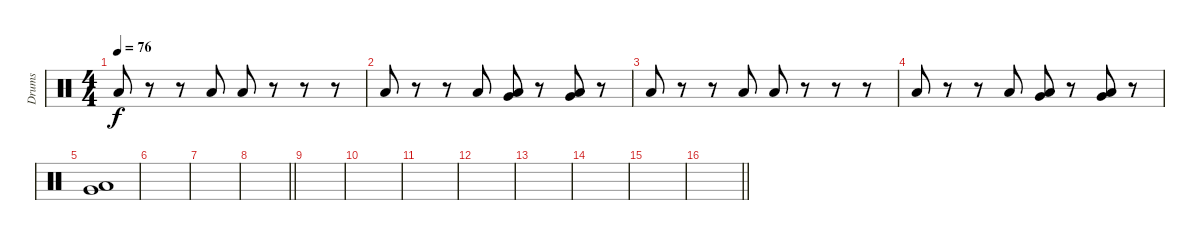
\track ("Drums" "Drums") {instrument percussion}
\staff {score}
\articulation defaults
\ts (4 4)
\tempo 76
\clef neutral
\ks c "Low Floor Tom (hit)".8{dy f}
r.8 r.8 "Low Floor Tom (hit)".8 "Low Floor Tom (hit)".8 r.8 r.8 r.8 |
"Low Floor Tom (hit)".8 r.8 r.8 "Low Floor Tom (hit)".8 ("Low Floor Tom (hit)" "Very Low Tom (hit)").8 r.8 ("Low Floor Tom (hit)" "Very Low Tom (hit)").8 r.8 |
"Low Floor Tom (hit)".8 r.8 r.8 "Low Floor Tom (hit)".8 "Low Floor Tom (hit)".8 r.8 r.8 r.8 |
"Low Floor Tom (hit)".8 r.8 r.8 "Low Floor Tom (hit)".8 ("Low Floor Tom (hit)" "Very Low Tom (hit)").8 r.8 ("Low Floor Tom (hit)" "Very Low Tom (hit)").8 r.8 |
("Low Floor Tom (hit)" "Very Low Tom (hit)").1 |
|
|
\barLineRight lightlight
|
|
|
|
|
|
|
|
\barLineRight lightlight
